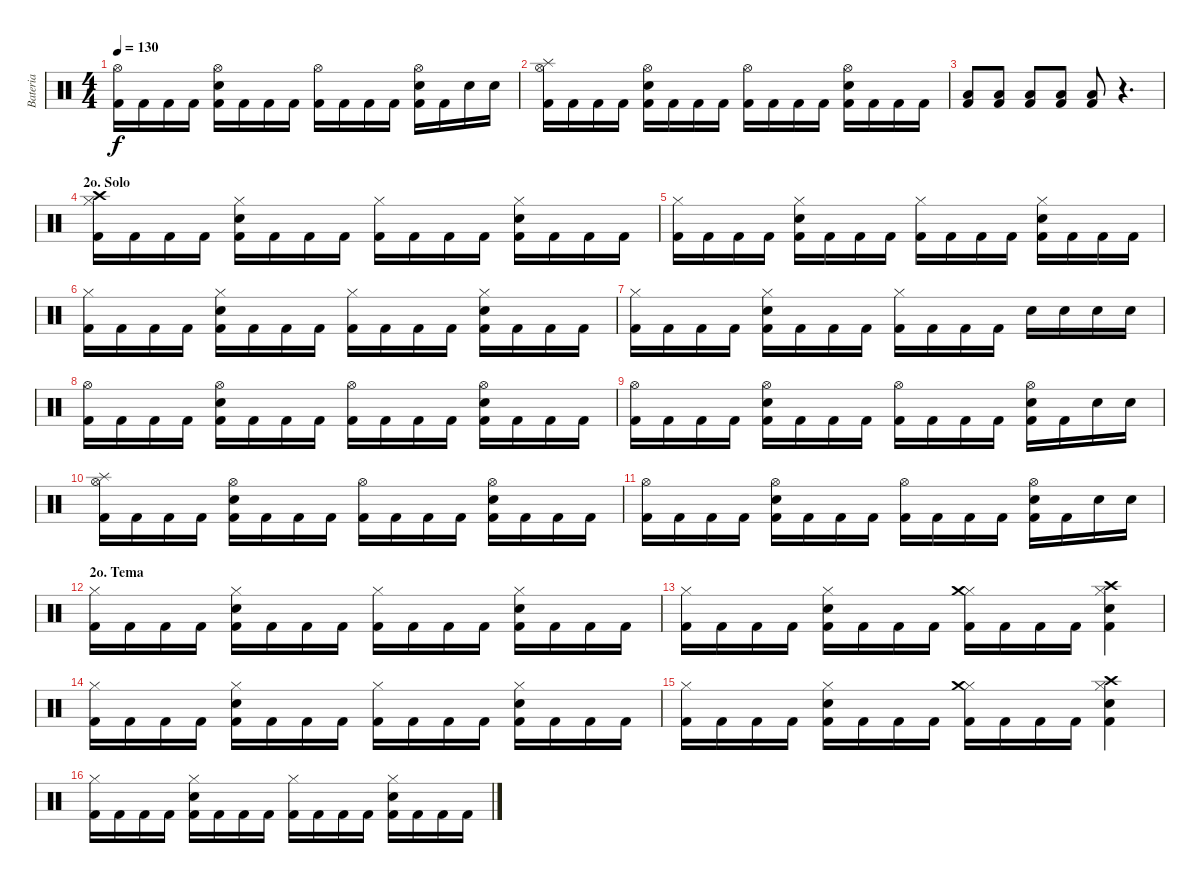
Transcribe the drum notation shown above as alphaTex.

\track ("Bateria" "Bateria") {instrument percussion}
\staff {score}
\articulation defaults
\ts (4 4)
\tempo 130
\clef neutral
\ks c
("Hi-Hat (open)" "Kick (hit) 2").16{dy f} "Kick (hit) 2".16 "Kick (hit) 2".16 "Kick (hit) 2".16 ("Hi-Hat (open)" "Snare (hit) 2" "Kick (hit) 2").16 "Kick (hit) 2".16 "Kick (hit) 2".16 "Kick (hit) 2".16 ("Hi-Hat (open)" "Kick (hit) 2").16 "Kick (hit) 2".16 "Kick (hit) 2".16 "Kick (hit) 2".16 ("Hi-Hat (open)" "Snare (hit) 2" "Kick (hit) 2").16 "Kick (hit) 2".16 "Snare (hit) 2".16 "Snare (hit) 2".16 |
("Hi-Hat (open)" "Kick (hit) 2" "Splash (hit)").16 "Kick (hit) 2".16 "Kick (hit) 2".16 "Kick (hit) 2".16 ("Hi-Hat (open)" "Snare (hit) 2" "Kick (hit) 2").16 "Kick (hit) 2".16 "Kick (hit) 2".16 "Kick (hit) 2".16 ("Hi-Hat (open)" "Kick (hit) 2").16 "Kick (hit) 2".16 "Kick (hit) 2".16 "Kick (hit) 2".16 ("Hi-Hat (open)" "Snare (hit) 2" "Kick (hit) 2").16 "Kick (hit) 2".16 "Kick (hit) 2".16 "Kick (hit) 2".16 |
("Low Tom (hit)" "Kick (hit) 2").8 ("Low Tom (hit)" "Kick (hit) 2").8 ("Low Tom (hit)" "Kick (hit) 2").8 ("Low Tom (hit)" "Kick (hit) 2").8 ("Low Tom (hit)" "Kick (hit) 2").8 r.4{d} |
\section ("" "2o. Solo")
("Hi-Hat (closed)" "Kick (hit) 2" "Crash high (hit)").16 "Kick (hit) 2".16 "Kick (hit) 2".16 "Kick (hit) 2".16 ("Hi-Hat (closed)" "Snare (hit) 2" "Kick (hit) 2").16 "Kick (hit) 2".16 "Kick (hit) 2".16 "Kick (hit) 2".16 ("Hi-Hat (closed)" "Kick (hit) 2").16 "Kick (hit) 2".16 "Kick (hit) 2".16 "Kick (hit) 2".16 ("Hi-Hat (closed)" "Snare (hit) 2" "Kick (hit) 2").16 "Kick (hit) 2".16 "Kick (hit) 2".16 "Kick (hit) 2".16 |
("Hi-Hat (closed)" "Kick (hit) 2").16 "Kick (hit) 2".16 "Kick (hit) 2".16 "Kick (hit) 2".16 ("Hi-Hat (closed)" "Snare (hit) 2" "Kick (hit) 2").16 "Kick (hit) 2".16 "Kick (hit) 2".16 "Kick (hit) 2".16 ("Hi-Hat (closed)" "Kick (hit) 2").16 "Kick (hit) 2".16 "Kick (hit) 2".16 "Kick (hit) 2".16 ("Hi-Hat (closed)" "Snare (hit) 2" "Kick (hit) 2").16 "Kick (hit) 2".16 "Kick (hit) 2".16 "Kick (hit) 2".16 |
("Hi-Hat (closed)" "Kick (hit) 2").16 "Kick (hit) 2".16 "Kick (hit) 2".16 "Kick (hit) 2".16 ("Hi-Hat (closed)" "Snare (hit) 2" "Kick (hit) 2").16 "Kick (hit) 2".16 "Kick (hit) 2".16 "Kick (hit) 2".16 ("Hi-Hat (closed)" "Kick (hit) 2").16 "Kick (hit) 2".16 "Kick (hit) 2".16 "Kick (hit) 2".16 ("Hi-Hat (closed)" "Snare (hit) 2" "Kick (hit) 2").16 "Kick (hit) 2".16 "Kick (hit) 2".16 "Kick (hit) 2".16 |
("Hi-Hat (closed)" "Kick (hit) 2").16 "Kick (hit) 2".16 "Kick (hit) 2".16 "Kick (hit) 2".16 ("Hi-Hat (closed)" "Snare (hit) 2" "Kick (hit) 2").16 "Kick (hit) 2".16 "Kick (hit) 2".16 "Kick (hit) 2".16 ("Hi-Hat (closed)" "Kick (hit) 2").16 "Kick (hit) 2".16 "Kick (hit) 2".16 "Kick (hit) 2".16 "Snare (hit) 2".16 "Snare (hit) 2".16 "Snare (hit) 2".16 "Snare (hit) 2".16 |
("Hi-Hat (open)" "Kick (hit) 2").16 "Kick (hit) 2".16 "Kick (hit) 2".16 "Kick (hit) 2".16 ("Hi-Hat (open)" "Snare (hit) 2" "Kick (hit) 2").16 "Kick (hit) 2".16 "Kick (hit) 2".16 "Kick (hit) 2".16 ("Hi-Hat (open)" "Kick (hit) 2").16 "Kick (hit) 2".16 "Kick (hit) 2".16 "Kick (hit) 2".16 ("Hi-Hat (open)" "Snare (hit) 2" "Kick (hit) 2").16 "Kick (hit) 2".16 "Kick (hit) 2".16 "Kick (hit) 2".16 |
("Hi-Hat (open)" "Kick (hit) 2").16 "Kick (hit) 2".16 "Kick (hit) 2".16 "Kick (hit) 2".16 ("Hi-Hat (open)" "Snare (hit) 2" "Kick (hit) 2").16 "Kick (hit) 2".16 "Kick (hit) 2".16 "Kick (hit) 2".16 ("Hi-Hat (open)" "Kick (hit) 2").16 "Kick (hit) 2".16 "Kick (hit) 2".16 "Kick (hit) 2".16 ("Hi-Hat (open)" "Snare (hit) 2" "Kick (hit) 2").16 "Kick (hit) 2".16 "Snare (hit) 2".16 "Snare (hit) 2".16 |
("Hi-Hat (open)" "Kick (hit) 2" "Splash (hit)").16 "Kick (hit) 2".16 "Kick (hit) 2".16 "Kick (hit) 2".16 ("Hi-Hat (open)" "Snare (hit) 2" "Kick (hit) 2").16 "Kick (hit) 2".16 "Kick (hit) 2".16 "Kick (hit) 2".16 ("Hi-Hat (open)" "Kick (hit) 2").16 "Kick (hit) 2".16 "Kick (hit) 2".16 "Kick (hit) 2".16 ("Hi-Hat (open)" "Snare (hit) 2" "Kick (hit) 2").16 "Kick (hit) 2".16 "Kick (hit) 2".16 "Kick (hit) 2".16 |
("Hi-Hat (open)" "Kick (hit) 2").16 "Kick (hit) 2".16 "Kick (hit) 2".16 "Kick (hit) 2".16 ("Hi-Hat (open)" "Snare (hit) 2" "Kick (hit) 2").16 "Kick (hit) 2".16 "Kick (hit) 2".16 "Kick (hit) 2".16 ("Hi-Hat (open)" "Kick (hit) 2").16 "Kick (hit) 2".16 "Kick (hit) 2".16 "Kick (hit) 2".16 ("Hi-Hat (open)" "Snare (hit) 2" "Kick (hit) 2").16 "Kick (hit) 2".16 "Snare (hit) 2".16 "Snare (hit) 2".16 |
\section ("" "2o. Tema")
("Hi-Hat (closed)" "Kick (hit) 2").16 "Kick (hit) 2".16 "Kick (hit) 2".16 "Kick (hit) 2".16 ("Hi-Hat (closed)" "Snare (hit) 2" "Kick (hit) 2").16 "Kick (hit) 2".16 "Kick (hit) 2".16 "Kick (hit) 2".16 ("Hi-Hat (closed)" "Kick (hit) 2").16 "Kick (hit) 2".16 "Kick (hit) 2".16 "Kick (hit) 2".16 ("Hi-Hat (closed)" "Snare (hit) 2" "Kick (hit) 2").16 "Kick (hit) 2".16 "Kick (hit) 2".16 "Kick (hit) 2".16 |
("Hi-Hat (closed)" "Kick (hit) 2").16 "Kick (hit) 2".16 "Kick (hit) 2".16 "Kick (hit) 2".16 ("Hi-Hat (closed)" "Snare (hit) 2" "Kick (hit) 2").16 "Kick (hit) 2".16 "Kick (hit) 2".16 "Kick (hit) 2".16 ("Hi-Hat (closed)" "Kick (hit) 2" "Crash medium (hit)").16 "Kick (hit) 2".16 "Kick (hit) 2".16 "Kick (hit) 2".16 ("Hi-Hat (closed)" "Snare (hit) 2" "Kick (hit) 2" "Crash high (hit)").4 |
("Hi-Hat (closed)" "Kick (hit) 2").16 "Kick (hit) 2".16 "Kick (hit) 2".16 "Kick (hit) 2".16 ("Hi-Hat (closed)" "Snare (hit) 2" "Kick (hit) 2").16 "Kick (hit) 2".16 "Kick (hit) 2".16 "Kick (hit) 2".16 ("Hi-Hat (closed)" "Kick (hit) 2").16 "Kick (hit) 2".16 "Kick (hit) 2".16 "Kick (hit) 2".16 ("Hi-Hat (closed)" "Snare (hit) 2" "Kick (hit) 2").16 "Kick (hit) 2".16 "Kick (hit) 2".16 "Kick (hit) 2".16 |
("Hi-Hat (closed)" "Kick (hit) 2").16 "Kick (hit) 2".16 "Kick (hit) 2".16 "Kick (hit) 2".16 ("Hi-Hat (closed)" "Snare (hit) 2" "Kick (hit) 2").16 "Kick (hit) 2".16 "Kick (hit) 2".16 "Kick (hit) 2".16 ("Hi-Hat (closed)" "Kick (hit) 2" "Crash medium (hit)").16 "Kick (hit) 2".16 "Kick (hit) 2".16 "Kick (hit) 2".16 ("Hi-Hat (closed)" "Snare (hit) 2" "Kick (hit) 2" "Crash high (hit)").4 |
("Hi-Hat (closed)" "Kick (hit) 2").16 "Kick (hit) 2".16 "Kick (hit) 2".16 "Kick (hit) 2".16 ("Hi-Hat (closed)" "Snare (hit) 2" "Kick (hit) 2").16 "Kick (hit) 2".16 "Kick (hit) 2".16 "Kick (hit) 2".16 ("Hi-Hat (closed)" "Kick (hit) 2").16 "Kick (hit) 2".16 "Kick (hit) 2".16 "Kick (hit) 2".16 ("Hi-Hat (closed)" "Snare (hit) 2" "Kick (hit) 2").16 "Kick (hit) 2".16 "Kick (hit) 2".16 "Kick (hit) 2".16
